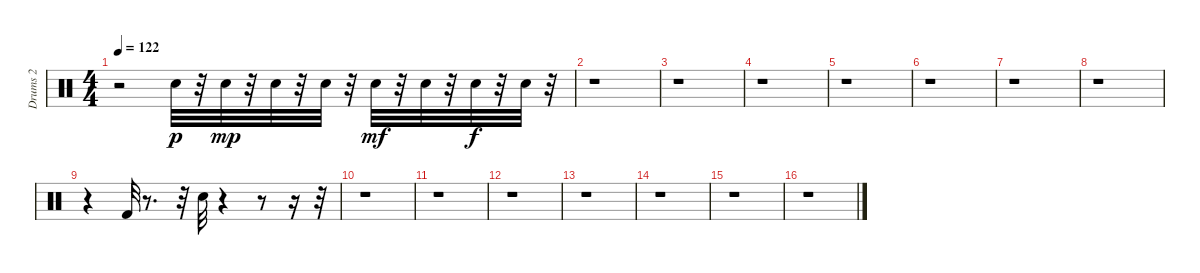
\track ("Drums 2" "Drums 2") {instrument percussion}
\staff {score}
\articulation defaults
\ts (4 4)
\tempo 122
\clef neutral
\ks c
r.2{dy f} "Snare (hit) 2".32{dy p} r.32 "Snare (hit) 2".32{dy mp} r.32 "Snare (hit) 2".32 r.32 "Snare (hit) 2".32 r.32 "Snare (hit) 2".32{dy mf} r.32 "Snare (hit) 2".32 r.32 "Snare (hit) 2".32{dy f} r.32 "Snare (hit) 2".32 r.32 |
r.1 |
r.1 |
r.1 |
r.1 |
r.1 |
r.1 |
r.1 |
r.4 "Kick (hit) 2".32 r.8{d} r.32 "Snare (hit) 2".32 r.4 r.8 r.16 r.32 |
r.1 |
r.1 |
r.1 |
r.1 |
r.1 |
r.1 |
r.1
